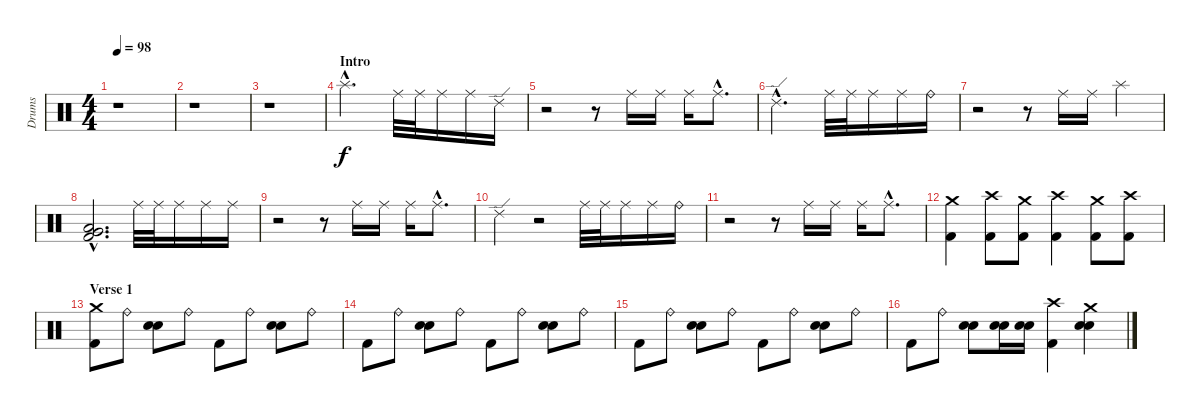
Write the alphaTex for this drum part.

\track ("Drums" "Drums") {instrument percussion}
\staff {score}
\articulation defaults
\ts (4 4)
\tempo 98
\clef neutral
\ks c
r.1{dy f} |
r.1 |
r.1 |
\section ("" "Intro")
"Splash (hit)"{hac}.2{d} "Ride (middle)".32 "Ride (middle)".32 "Ride (middle)".16 "Ride (middle)".16 "Ride (edge) 2".16 |
r.2 r.8 "Ride (middle)".16 "Ride (middle)".16 "Ride (middle)".16 "Ride (middle)"{hac}.8{d} |
"Ride (edge) 2"{hac}.2{d} "Ride (middle)".32 "Ride (middle)".32 "Ride (middle)".16 "Ride (middle)".16 "Ride (bell)".16 |
r.2 r.8 "Ride (middle)".16 "Ride (middle)".16 "Splash (hit)".4 |
("Very Low Tom (hit)"{hac} "Low Floor Tom (hit)"{hac} "Kick (hit) 2"{hac}).2{d} "Ride (middle)".32 "Ride (middle)".32 "Ride (middle)".16 "Ride (middle)".16 "Ride (middle)".16 |
r.2 r.8 "Ride (middle)".16 "Ride (middle)".16 "Ride (middle)".16 "Ride (middle)"{hac}.8{d} |
"Ride (edge) 2".4 r.2 "Ride (middle)".32 "Ride (middle)".32 "Ride (middle)".16 "Ride (middle)".16 "Ride (bell)".16 |
r.2 r.8 "Ride (middle)".16 "Ride (middle)".16 "Ride (middle)".16 "Ride (middle)"{hac}.8{d} |
("Crash medium (hit)" "Kick (hit) 2").4 ("Crash high (hit)" "Kick (hit) 2").8 ("Crash medium (hit)" "Kick (hit) 2").8 ("Crash high (hit)" "Kick (hit) 2").4 ("Crash medium (hit)" "Kick (hit) 2").8 ("Crash high (hit)" "Kick (hit) 2").8 |
\section ("" "Verse 1")
("Crash medium (hit)" "Kick (hit) 2").8 "Ride (bell)".8 ("Snare (hit) 2" "Electric Snare (hit)").8 "Ride (bell)".8 "Kick (hit) 2".8 "Ride (bell)".8 ("Snare (hit) 2" "Electric Snare (hit)").8 "Ride (bell)".8 |
"Kick (hit) 2".8 "Ride (bell)".8 ("Snare (hit) 2" "Electric Snare (hit)").8 "Ride (bell)".8 "Kick (hit) 2".8 "Ride (bell)".8 ("Snare (hit) 2" "Electric Snare (hit)").8 "Ride (bell)".8 |
"Kick (hit) 2".8 "Ride (bell)".8 ("Snare (hit) 2" "Electric Snare (hit)").8 "Ride (bell)".8 "Kick (hit) 2".8 "Ride (bell)".8 ("Snare (hit) 2" "Electric Snare (hit)").8 "Ride (bell)".8 |
"Kick (hit) 2".8 "Ride (bell)".8 ("Snare (hit) 2" "Electric Snare (hit)").8 ("Snare (hit) 2" "Electric Snare (hit)").16 ("Snare (hit) 2" "Electric Snare (hit)").16 ("Crash high (hit)" "Kick (hit) 2").4 ("Crash medium (hit)" "Snare (hit) 2" "Electric Snare (hit)").4
